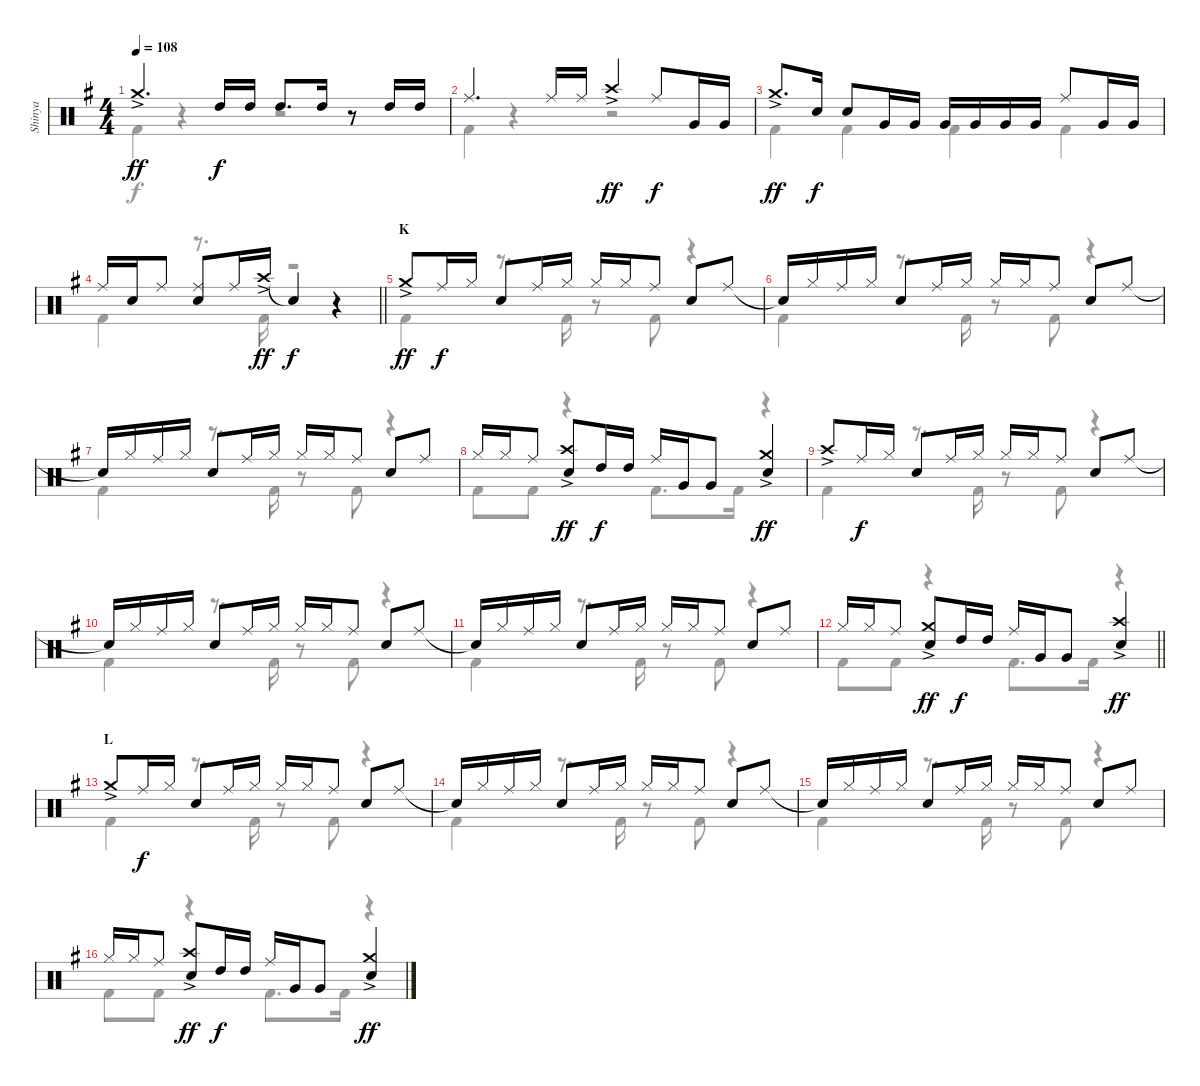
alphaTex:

\track ("Shinya" "Shinya") {instrument percussion}
\staff {score}
\articulation defaults
\voice
\ts (4 4)
\tempo 108
\clef neutral
\ks eminor "Crash medium (hit)"{ac}.4{d dy ff} "High Tom (hit)".16{dy f} "High Tom (hit)".16 "High Tom (hit)".8{d} "High Tom (hit)".16
r.8 "High Tom (hit)".16 "High Tom (hit)".16 |
"Ride (middle)".4{d} "Ride (middle)".16 "Ride (middle)".16 "Crash high (hit)"{ac}.4{dy ff} "Ride (middle)".8{dy f} "Very Low Tom (hit)".16 "Very Low Tom (hit)".16 |
"Crash medium (hit)"{ac}.8{d dy ff} "Snare (hit) 2".16{dy f} "Snare (hit) 2".8 "Very Low Tom (hit)".16 "Very Low Tom (hit)".16 "Very Low Tom (hit)".16 "Very Low Tom (hit)".16 "Very Low Tom (hit)".16 "Very Low Tom (hit)".16 "Ride (middle)".8 "Very Low Tom (hit)".16 "Very Low Tom (hit)".16 |
\barLineRight lightlight "Ride (middle)".16 "Snare (hit) 2".16 "Ride (middle)".8
("Ride (middle)" "Snare (hit) 2").8 "Ride (middle)".16 "Crash high (hit)"{ac}.16{dy ff} "Snare (hit)"{t}.4{dy f} r.4 |
\section ("" "K")
"Crash medium (hit)"{ac}.8{dy ff} "Ride (middle)".16{dy f} "Hi-Hat (closed)".16 "Snare (hit) 2".8 "Ride (middle)".16 "Hi-Hat (closed)".16 "Hi-Hat (closed)".16 "Hi-Hat (closed)".16 "Ride (middle)".8 "Snare (hit) 2".8 "Ride (middle)".8 |
"Snare (hit)"{t}.16 "Hi-Hat (closed)".16 "Ride (middle)".16 "Hi-Hat (closed)".16 "Snare (hit) 2".8 "Ride (middle)".16 "Hi-Hat (closed)".16 "Hi-Hat (closed)".16 "Hi-Hat (closed)".16 "Ride (middle)".8 "Snare (hit) 2".8 "Ride (middle)".8 |
"Snare (hit)"{t}.16 "Hi-Hat (closed)".16 "Ride (middle)".16 "Hi-Hat (closed)".16 "Snare (hit) 2".8 "Ride (middle)".16 "Hi-Hat (closed)".16 "Hi-Hat (closed)".16 "Hi-Hat (closed)".16 "Ride (middle)".8 "Snare (hit) 2".8 "Ride (middle)".8 |
"Hi-Hat (closed)".16 "Hi-Hat (closed)".16 "Ride (middle)".8 ("Crash high (hit)"{ac} "Snare (hit) 2").8{dy ff} "High Tom (hit)".16{dy f} "High Tom (hit)".16 "Ride (middle)".16 "Very Low Tom (hit)".16 "Very Low Tom (hit)".8 ("Crash medium (hit)"{ac} "Snare (hit) 2").4{dy ff} |
"Crash high (hit)"{ac}.8 "Ride (middle)".16{dy f} "Hi-Hat (closed)".16 "Snare (hit) 2".8 "Ride (middle)".16 "Hi-Hat (closed)".16 "Hi-Hat (closed)".16 "Hi-Hat (closed)".16 "Ride (middle)".8 "Snare (hit) 2".8 "Ride (middle)".8 |
"Snare (hit)"{t}.16 "Hi-Hat (closed)".16 "Ride (middle)".16 "Hi-Hat (closed)".16 "Snare (hit) 2".8 "Ride (middle)".16 "Hi-Hat (closed)".16 "Hi-Hat (closed)".16 "Hi-Hat (closed)".16 "Ride (middle)".8 "Snare (hit) 2".8 "Ride (middle)".8 |
"Snare (hit)"{t}.16 "Hi-Hat (closed)".16 "Ride (middle)".16 "Hi-Hat (closed)".16 "Snare (hit) 2".8 "Ride (middle)".16 "Hi-Hat (closed)".16 "Hi-Hat (closed)".16 "Hi-Hat (closed)".16 "Ride (middle)".8 "Snare (hit) 2".8 "Ride (middle)".8 |
\barLineRight lightlight "Hi-Hat (closed)".16 "Hi-Hat (closed)".16 "Ride (middle)".8
("Crash medium (hit)"{ac} "Snare (hit) 2").8{dy ff} "High Tom (hit)".16{dy f} "High Tom (hit)".16 "Ride (middle)".16 "Very Low Tom (hit)".16 "Very Low Tom (hit)".8 ("Crash high (hit)"{ac} "Snare (hit) 2").4{dy ff} |
\section ("" "L")
"Crash medium (hit)"{ac}.8 "Ride (middle)".16{dy f} "Hi-Hat (closed)".16 "Snare (hit) 2".8 "Ride (middle)".16 "Hi-Hat (closed)".16 "Hi-Hat (closed)".16 "Hi-Hat (closed)".16 "Ride (middle)".8 "Snare (hit) 2".8 "Ride (middle)".8 |
"Snare (hit)"{t}.16 "Hi-Hat (closed)".16 "Ride (middle)".16 "Hi-Hat (closed)".16 "Snare (hit) 2".8 "Ride (middle)".16 "Hi-Hat (closed)".16 "Hi-Hat (closed)".16 "Hi-Hat (closed)".16 "Ride (middle)".8 "Snare (hit) 2".8 "Ride (middle)".8 |
"Snare (hit)"{t}.16 "Hi-Hat (closed)".16 "Ride (middle)".16 "Hi-Hat (closed)".16 "Snare (hit) 2".8 "Ride (middle)".16 "Hi-Hat (closed)".16 "Hi-Hat (closed)".16 "Hi-Hat (closed)".16 "Ride (middle)".8 "Snare (hit) 2".8 "Ride (middle)".8 |
"Hi-Hat (closed)".16 "Hi-Hat (closed)".16 "Ride (middle)".8 ("Crash high (hit)"{ac} "Snare (hit) 2").8{dy ff} "High Tom (hit)".16{dy f} "High Tom (hit)".16 "Ride (middle)".16 "Very Low Tom (hit)".16 "Very Low Tom (hit)".8 ("Crash medium (hit)"{ac} "Snare (hit) 2").4{dy ff}
\voice
\clef neutral
\ottava regular
\simile none
\ks eminor "Kick (hit) 2".4{dy f}
r.4 r.2 |
"Kick (hit) 2".4 r.4 r.2 |
"Kick (hit) 2".4 "Kick (hit) 2".4 "Kick (hit) 2".4 "Kick (hit) 2".4 |
\barLineRight lightlight "Kick (hit) 2".4
r.8{d} "Kick (hit) 2".16 r.2 |
"Kick (hit) 2".4 r.8{d} "Kick (hit) 2".16 r.8 "Kick (hit) 2".8 r.4 |
"Kick (hit) 2".4 r.8{d} "Kick (hit) 2".16 r.8 "Kick (hit) 2".8 r.4 |
"Kick (hit) 2".4 r.8{d} "Kick (hit) 2".16 r.8 "Kick (hit) 2".8 r.4 |
"Kick (hit) 2".8 "Kick (hit) 2".8 r.4 "Kick (hit) 2".8{d} "Kick (hit) 2".16 r.4 |
"Kick (hit) 2".4 r.8{d} "Kick (hit) 2".16 r.8 "Kick (hit) 2".8 r.4 |
"Kick (hit) 2".4 r.8{d} "Kick (hit) 2".16 r.8 "Kick (hit) 2".8 r.4 |
"Kick (hit) 2".4 r.8{d} "Kick (hit) 2".16 r.8 "Kick (hit) 2".8 r.4 |
\barLineRight lightlight "Kick (hit) 2".8 "Kick (hit) 2".8
r.4 "Kick (hit) 2".8{d} "Kick (hit) 2".16 r.4 |
"Kick (hit) 2".4 r.8{d} "Kick (hit) 2".16 r.8 "Kick (hit) 2".8 r.4 |
"Kick (hit) 2".4 r.8{d} "Kick (hit) 2".16 r.8 "Kick (hit) 2".8 r.4 |
"Kick (hit) 2".4 r.8{d} "Kick (hit) 2".16 r.8 "Kick (hit) 2".8 r.4 |
"Kick (hit) 2".8 "Kick (hit) 2".8 r.4 "Kick (hit) 2".8{d} "Kick (hit) 2".16 r.4
